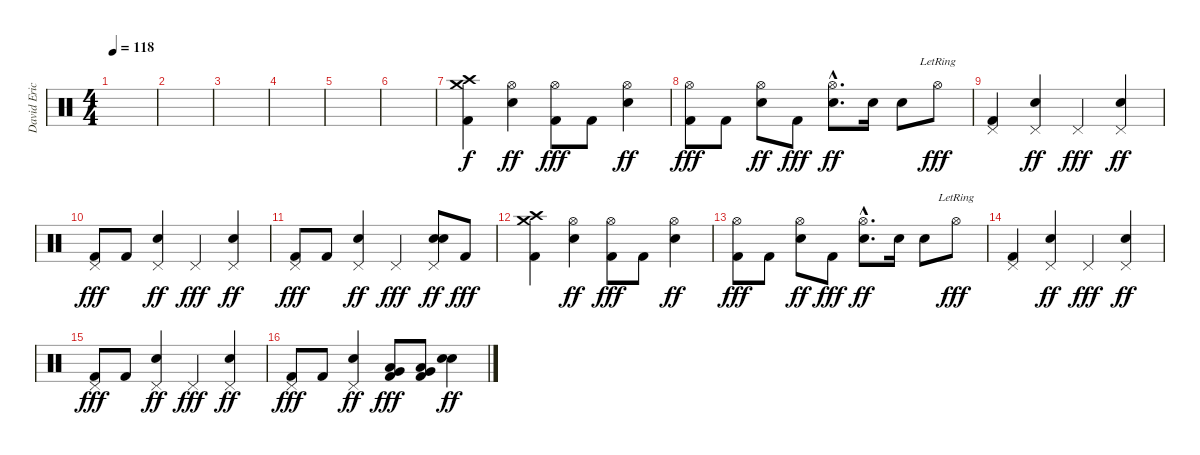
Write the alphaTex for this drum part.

\track ("David Eric Grohl" "David Eric") {instrument percussion}
\staff {score}
\articulation defaults
\ts (4 4)
\tempo 118
\clef neutral
\ks c
|
|
|
|
|
|
("Crash medium (hit)" "Crash high (hit)" "Kick (hit) 2").4 ("Hi-Hat (open)" "Electric Snare (hit)").4{dy ff} ("Hi-Hat (open)" "Kick (hit) 2").8{dy fff} "Kick (hit) 2".8 ("Hi-Hat (open)" "Electric Snare (hit)").4{dy ff} |
("Hi-Hat (open)" "Kick (hit) 2").8{dy fff} "Kick (hit) 2".8 ("Hi-Hat (open)" "Electric Snare (hit)").8{dy ff} "Kick (hit) 2".8{dy fff} ("Hi-Hat (open)"{hac} "Electric Snare (hit)"{hac}).8{d dy ff} "Electric Snare (hit)".16 "Electric Snare (hit)".8 "Hi-Hat (open)"{lr}.8{dy fff} |
("Pedal Hi-Hat (hit)" "Kick (hit) 2").4 ("Pedal Hi-Hat (hit)" "Electric Snare (hit)").4{dy ff} "Pedal Hi-Hat (hit)".4{dy fff} ("Pedal Hi-Hat (hit)" "Electric Snare (hit)").4{dy ff} |
("Pedal Hi-Hat (hit)" "Kick (hit) 2").8{dy fff} "Kick (hit) 2".8 ("Pedal Hi-Hat (hit)" "Electric Snare (hit)").4{dy ff} "Pedal Hi-Hat (hit)".4{dy fff} ("Pedal Hi-Hat (hit)" "Electric Snare (hit)").4{dy ff} |
("Pedal Hi-Hat (hit)" "Kick (hit) 2").8{dy fff} "Kick (hit) 2".8 ("Pedal Hi-Hat (hit)" "Electric Snare (hit)").4{dy ff} "Pedal Hi-Hat (hit)".4{dy fff} ("Pedal Hi-Hat (hit)" "Electric Snare (hit)" "Electric Snare (hit)").8{dy ff} "Kick (hit) 2".8{dy fff} |
("Crash medium (hit)" "Crash high (hit)" "Kick (hit) 2").4 ("Hi-Hat (open)" "Electric Snare (hit)").4{dy ff} ("Hi-Hat (open)" "Kick (hit) 2").8{dy fff} "Kick (hit) 2".8 ("Hi-Hat (open)" "Electric Snare (hit)").4{dy ff} |
("Hi-Hat (open)" "Kick (hit) 2").8{dy fff} "Kick (hit) 2".8 ("Hi-Hat (open)" "Electric Snare (hit)").8{dy ff} "Kick (hit) 2".8{dy fff} ("Hi-Hat (open)"{hac} "Electric Snare (hit)"{hac}).8{d dy ff} "Electric Snare (hit)".16 "Electric Snare (hit)".8 "Hi-Hat (open)"{lr}.8{dy fff} |
("Pedal Hi-Hat (hit)" "Kick (hit) 2").4 ("Pedal Hi-Hat (hit)" "Electric Snare (hit)").4{dy ff} "Pedal Hi-Hat (hit)".4{dy fff} ("Pedal Hi-Hat (hit)" "Electric Snare (hit)").4{dy ff} |
("Pedal Hi-Hat (hit)" "Kick (hit) 2").8{dy fff} "Kick (hit) 2".8 ("Pedal Hi-Hat (hit)" "Electric Snare (hit)").4{dy ff} "Pedal Hi-Hat (hit)".4{dy fff} ("Pedal Hi-Hat (hit)" "Electric Snare (hit)").4{dy ff} |
("Pedal Hi-Hat (hit)" "Kick (hit) 2").8{dy fff} "Kick (hit) 2".8 ("Pedal Hi-Hat (hit)" "Electric Snare (hit)").4{dy ff} ("Low Tom (hit)" "Very Low Tom (hit)" "Kick (hit) 2").8{dy fff} ("Low Tom (hit)" "Very Low Tom (hit)" "Kick (hit) 2").8 ("Electric Snare (hit)" "Electric Snare (hit)").4{dy ff}
